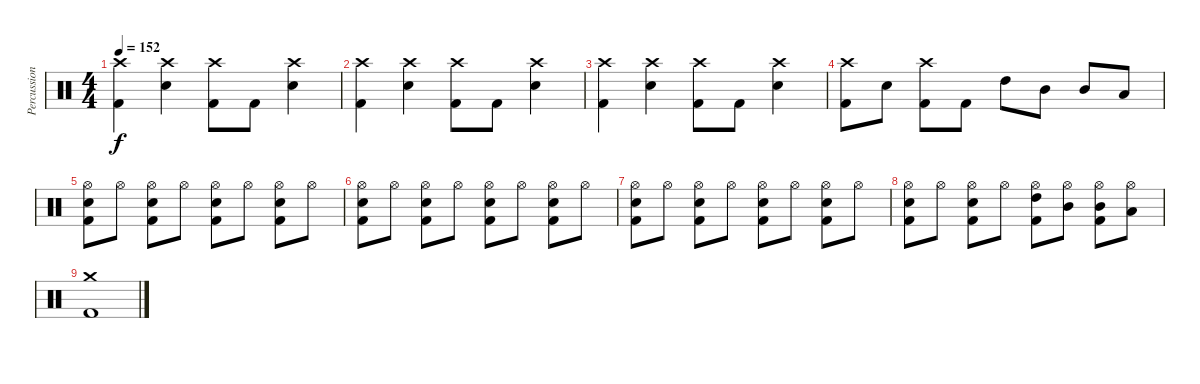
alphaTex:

\track ("Percussion" "Percussion") {instrument percussion}
\staff {score}
\articulation defaults
\ts (4 4)
\tempo 152
\clef neutral
\ks c
("Crash high (hit)" "Kick (hit) 2").4{dy f} ("Crash high (hit)" "Snare (hit) 2").4 ("Crash high (hit)" "Kick (hit) 2").8 "Kick (hit) 2".8 ("Crash high (hit)" "Snare (hit) 2").4 |
("Crash high (hit)" "Kick (hit) 2").4 ("Crash high (hit)" "Snare (hit) 2").4 ("Crash high (hit)" "Kick (hit) 2").8 "Kick (hit) 2".8 ("Crash high (hit)" "Snare (hit) 2").4 |
("Crash high (hit)" "Kick (hit) 2").4 ("Crash high (hit)" "Snare (hit) 2").4 ("Crash high (hit)" "Kick (hit) 2").8 "Kick (hit) 2".8 ("Crash high (hit)" "Snare (hit) 2").4 |
("Crash high (hit)" "Kick (hit) 2").8 "Snare (hit) 2".8 ("Crash high (hit)" "Kick (hit) 2").8 "Kick (hit) 2".8 "High Tom (hit)".8 "Mid Tom (hit)".8 "Mid Tom (hit)".8 "Low Tom (hit)".8 |
("Hi-Hat (open)" "Snare (hit) 2" "Kick (hit) 2").8 "Hi-Hat (open)".8 ("Hi-Hat (open)" "Snare (hit) 2" "Kick (hit) 2").8 "Hi-Hat (open)".8 ("Hi-Hat (open)" "Snare (hit) 2" "Kick (hit) 2").8 "Hi-Hat (open)".8 ("Hi-Hat (open)" "Snare (hit) 2" "Kick (hit) 2").8 "Hi-Hat (open)".8 |
("Hi-Hat (open)" "Snare (hit) 2" "Kick (hit) 2").8 "Hi-Hat (open)".8 ("Hi-Hat (open)" "Snare (hit) 2" "Kick (hit) 2").8 "Hi-Hat (open)".8 ("Hi-Hat (open)" "Snare (hit) 2" "Kick (hit) 2").8 "Hi-Hat (open)".8 ("Hi-Hat (open)" "Snare (hit) 2" "Kick (hit) 2").8 "Hi-Hat (open)".8 |
("Hi-Hat (open)" "Snare (hit) 2" "Kick (hit) 2").8 "Hi-Hat (open)".8 ("Hi-Hat (open)" "Snare (hit) 2" "Kick (hit) 2").8 "Hi-Hat (open)".8 ("Hi-Hat (open)" "Snare (hit) 2" "Kick (hit) 2").8 "Hi-Hat (open)".8 ("Hi-Hat (open)" "Snare (hit) 2" "Kick (hit) 2").8 "Hi-Hat (open)".8 |
("Hi-Hat (open)" "Snare (hit) 2" "Kick (hit) 2").8 "Hi-Hat (open)".8 ("Hi-Hat (open)" "Snare (hit) 2" "Kick (hit) 2").8 "Hi-Hat (open)".8 ("Hi-Hat (open)" "High Tom (hit)" "Kick (hit) 2").8 ("Hi-Hat (open)" "Mid Tom (hit)").8 ("Hi-Hat (open)" "Mid Tom (hit)" "Kick (hit) 2").8 ("Hi-Hat (open)" "Low Tom (hit)").8 |
("Crash medium (hit)" "Kick (hit) 2").1
